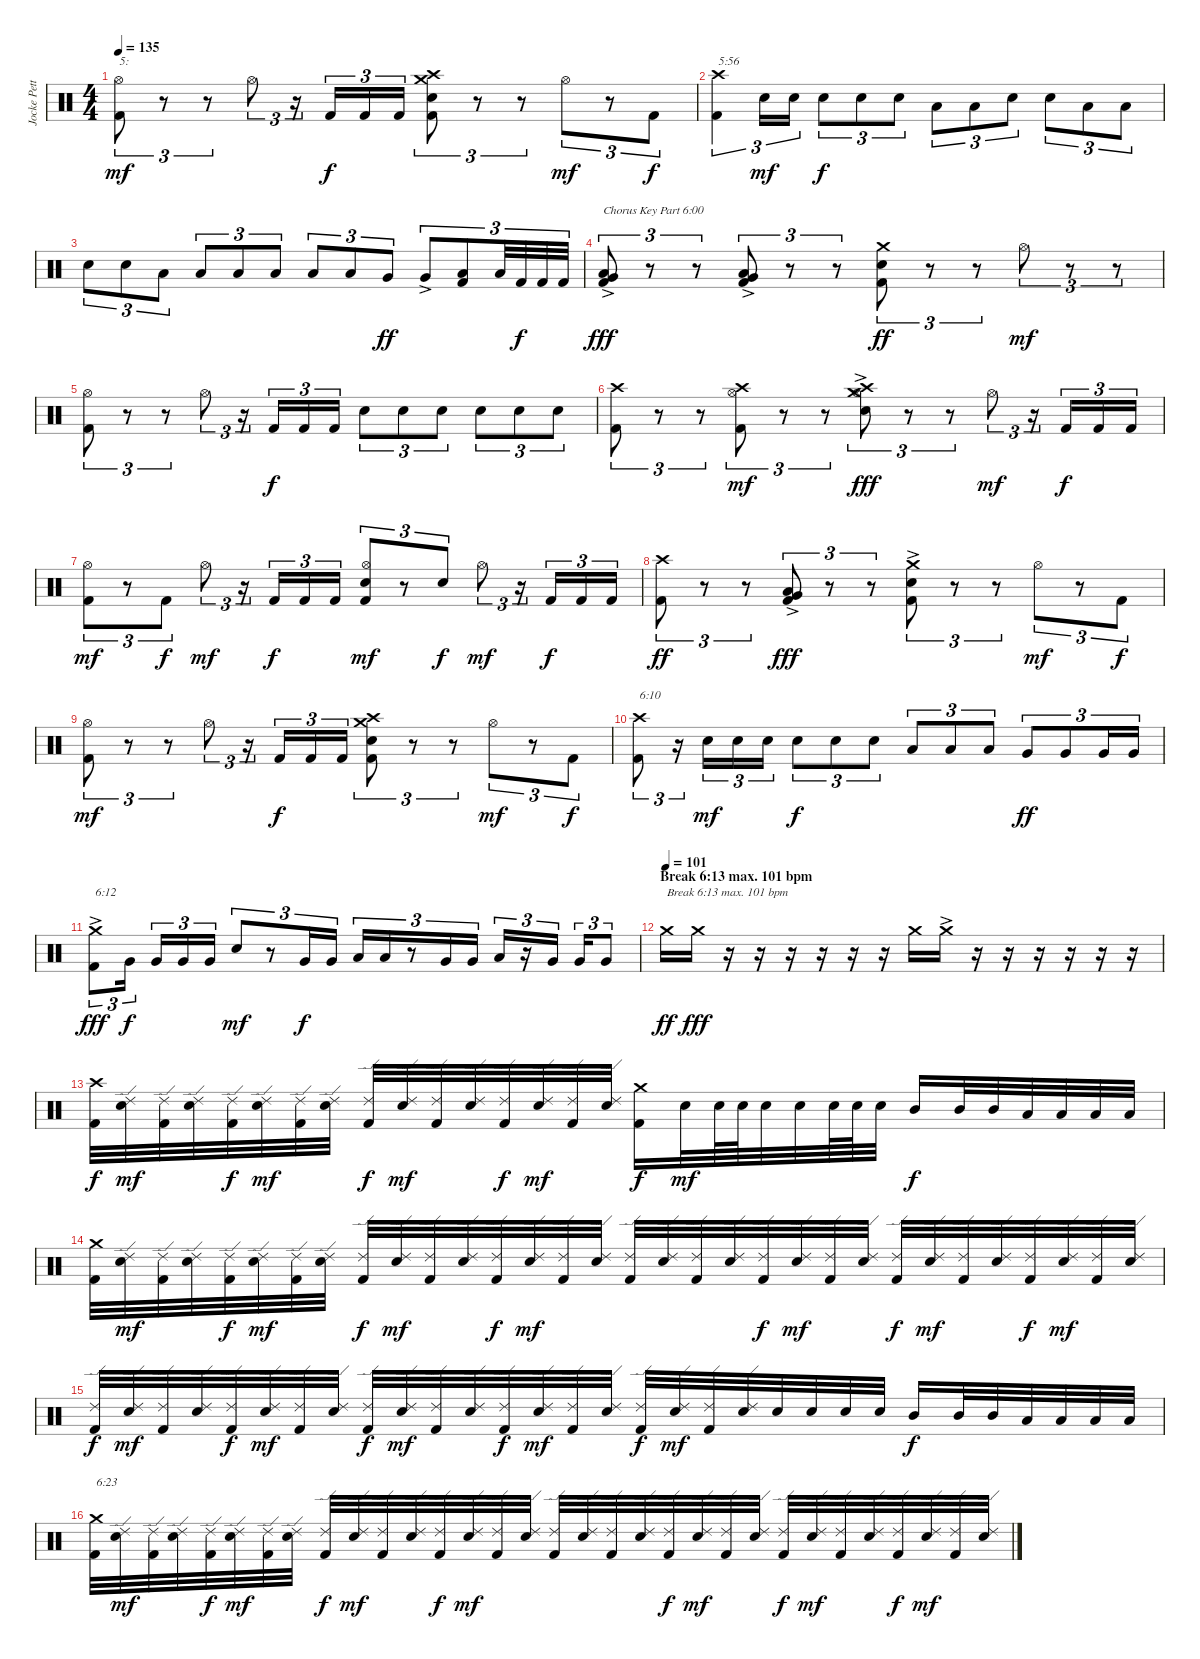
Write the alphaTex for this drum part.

\track ("Jocke Pettersson" "Jocke Pett") {instrument percussion}
\staff {score}
\articulation defaults
\ts (4 4)
\tempo 135
\clef neutral
\ks c
("Kick (hit) 2" "Hi-Hat (open)").8{tu (3 2) txt "5:" dy mf} r.8{tu (3 2)} r.8{tu (3 2)} "Hi-Hat (open)".8{tu (3 2)} r.16{tu (3 2)} "Kick (hit) 2".16{tu (3 2) dy f} "Kick (hit) 2".16{tu (3 2)} "Kick (hit) 2".16{tu (3 2)} ("Kick (hit) 2" "Electric Snare (hit)" "Crash medium (hit)" "Crash high (hit)").8{tu (3 2)} r.8{tu (3 2)} r.8{tu (3 2)} "Hi-Hat (open)".8{tu (3 2) dy mf} r.8{tu (3 2)} "Kick (hit) 2".8{tu (3 2) dy f} |
("Kick (hit) 2" "Crash high (hit)").4{tu (3 2) txt "5:56"} "Electric Snare (hit)".16{tu (3 2) dy mf} "Electric Snare (hit)".16{tu (3 2)} "Electric Snare (hit)".8{tu (3 2) dy f} "Electric Snare (hit)".8{tu (3 2)} "Electric Snare (hit)".8{tu (3 2)} "Low Tom (hit)".8{tu (3 2)} "Low Tom (hit)".8{tu (3 2)} "Electric Snare (hit)".8{tu (3 2)} "Electric Snare (hit)".8{tu (3 2)} "Low Tom (hit)".8{tu (3 2)} "Low Tom (hit)".8{tu (3 2)} |
"Electric Snare (hit)".8{tu (3 2)} "Electric Snare (hit)".8{tu (3 2)} "Low Tom (hit)".8{tu (3 2)} "Low Tom (hit)".8{tu (3 2)} "Low Tom (hit)".8{tu (3 2)} "Low Tom (hit)".8{tu (3 2)} "Low Tom (hit)".8{tu (3 2)} "Low Tom (hit)".8{tu (3 2)} "Very Low Tom (hit)".8{tu (3 2) dy ff} "Very Low Tom (hit)"{ac}.8{tu (3 2)} ("Kick (hit) 2" "Low Floor Tom (hit)").8{tu (3 2)} "Low Floor Tom (hit)".32{tu (3 2)} "Kick (hit) 2".32{tu (3 2) dy f} "Kick (hit) 2".32{tu (3 2)} "Kick (hit) 2".32{tu (3 2)} |
("Kick (hit) 2" "Very Low Tom (hit)"{ac} "Low Tom (hit)").8{tu (3 2) txt "Chorus Key Part 6:00" dy fff} r.8{tu (3 2)} r.8{tu (3 2)} ("Kick (hit) 2" "Very Low Tom (hit)"{ac} "Low Tom (hit)"{ac}).8{tu (3 2)} r.8{tu (3 2)} r.8{tu (3 2)} ("Kick (hit) 2" "Electric Snare (hit)" "Crash medium (hit)").8{tu (3 2) dy ff} r.8{tu (3 2)} r.8{tu (3 2)} "Hi-Hat (open)".8{tu (3 2) dy mf} r.8{tu (3 2)} r.8{tu (3 2)} |
("Kick (hit) 2" "Hi-Hat (open)").8{tu (3 2)} r.8{tu (3 2)} r.8{tu (3 2)} "Hi-Hat (open)".8{tu (3 2)} r.16{tu (3 2)} "Kick (hit) 2".16{tu (3 2) dy f} "Kick (hit) 2".16{tu (3 2)} "Kick (hit) 2".16{tu (3 2)} "Electric Snare (hit)".8{tu (3 2)} "Electric Snare (hit)".8{tu (3 2)} "Electric Snare (hit)".8{tu (3 2)} "Electric Snare (hit)".8{tu (3 2)} "Electric Snare (hit)".8{tu (3 2)} "Electric Snare (hit)".8{tu (3 2)} |
("Kick (hit) 2" "Crash high (hit)").8{tu (3 2)} r.8{tu (3 2)} r.8{tu (3 2)} ("Kick (hit) 2" "Hi-Hat (open)" "Crash high (hit)").8{tu (3 2) dy mf} r.8{tu (3 2)} r.8{tu (3 2)} ("Electric Snare (hit)" "Hi-Hat (open)" "Crash high (hit)" "Crash medium (hit)"{ac}).8{tu (3 2) dy fff} r.8{tu (3 2)} r.8{tu (3 2)} "Hi-Hat (open)".8{tu (3 2) dy mf} r.16{tu (3 2)} "Kick (hit) 2".16{tu (3 2) dy f} "Kick (hit) 2".16{tu (3 2)} "Kick (hit) 2".16{tu (3 2)} |
("Kick (hit) 2" "Hi-Hat (open)").8{tu (3 2) dy mf} r.8{tu (3 2)} "Kick (hit) 2".8{tu (3 2) dy f} "Hi-Hat (open)".8{tu (3 2) dy mf} r.16{tu (3 2)} "Kick (hit) 2".16{tu (3 2) dy f} "Kick (hit) 2".16{tu (3 2)} "Kick (hit) 2".16{tu (3 2)} ("Kick (hit) 2" "Electric Snare (hit)" "Hi-Hat (open)").8{tu (3 2) dy mf} r.8{tu (3 2)} "Electric Snare (hit)".8{tu (3 2) dy f} "Hi-Hat (open)".8{tu (3 2) dy mf} r.16{tu (3 2)} "Kick (hit) 2".16{tu (3 2) dy f} "Kick (hit) 2".16{tu (3 2)} "Kick (hit) 2".16{tu (3 2)} |
("Kick (hit) 2" "Crash high (hit)").8{tu (3 2) dy ff} r.8{tu (3 2)} r.8{tu (3 2)} ("Kick (hit) 2" "Very Low Tom (hit)"{ac} "Low Tom (hit)"{ac}).8{tu (3 2) dy fff} r.8{tu (3 2)} r.8{tu (3 2)} ("Kick (hit) 2" "Electric Snare (hit)" "Crash medium (hit)"{ac}).8{tu (3 2)} r.8{tu (3 2)} r.8{tu (3 2)} "Hi-Hat (open)".8{tu (3 2) dy mf} r.8{tu (3 2)} "Kick (hit) 2".8{tu (3 2) dy f} |
("Kick (hit) 2" "Hi-Hat (open)").8{tu (3 2) dy mf} r.8{tu (3 2)} r.8{tu (3 2)} "Hi-Hat (open)".8{tu (3 2)} r.16{tu (3 2)} "Kick (hit) 2".16{tu (3 2) dy f} "Kick (hit) 2".16{tu (3 2)} "Kick (hit) 2".16{tu (3 2)} ("Kick (hit) 2" "Electric Snare (hit)" "Crash medium (hit)" "Crash high (hit)").8{tu (3 2)} r.8{tu (3 2)} r.8{tu (3 2)} "Hi-Hat (open)".8{tu (3 2) dy mf} r.8{tu (3 2)} "Kick (hit) 2".8{tu (3 2) dy f} |
("Kick (hit) 2" "Crash high (hit)").8{tu (3 2) txt "6:10"} r.16{tu (3 2)} "Electric Snare (hit)".16{tu (3 2) dy mf} "Electric Snare (hit)".16{tu (3 2)} "Electric Snare (hit)".16{tu (3 2)} "Electric Snare (hit)".8{tu (3 2) dy f} "Electric Snare (hit)".8{tu (3 2)} "Electric Snare (hit)".8{tu (3 2)} "Low Tom (hit)".8{tu (3 2)} "Low Tom (hit)".8{tu (3 2)} "Low Tom (hit)".8{tu (3 2)} "Very Low Tom (hit)".8{tu (3 2) dy ff} "Very Low Tom (hit)".8{tu (3 2)} "Very Low Tom (hit)".16{tu (3 2)} "Very Low Tom (hit)".16{tu (3 2)} |
("Kick (hit) 2" "Crash medium (hit)"{ac}).8{tu (3 2) txt "6:12" dy fff} "Very Low Tom (hit)".16{tu (3 2) dy f} "Very Low Tom (hit)".16{tu (3 2)} "Very Low Tom (hit)".16{tu (3 2)} "Very Low Tom (hit)".16{tu (3 2)} "Electric Snare (hit)".8{tu (3 2) dy mf} r.8{tu (3 2)} "Very Low Tom (hit)".16{tu (3 2) dy f} "Very Low Tom (hit)".16{tu (3 2)} "Low Tom (hit)".16{tu (3 2)} "Low Tom (hit)".16{tu (3 2)} r.8{tu (3 2)} "Very Low Tom (hit)".16{tu (3 2)} "Very Low Tom (hit)".16{tu (3 2)} "Low Tom (hit)".16{tu (3 2)} r.16{tu (3 2)} "Very Low Tom (hit)".16{tu (3 2)} "Very Low Tom (hit)".16{tu (3 2)} "Very Low Tom (hit)".8{tu (3 2)} |
\section ("" "Break 6:13 max. 101 bpm")
\tempo (101)
"Crash medium (hit)".16{txt "Break 6:13 max. 101 bpm" dy ff} "Crash medium (hit)".16{dy fff} r.16{volume 0} r.16 r.16 r.16 r.16 r.16 "Crash medium (hit)".16{volume 14} "Crash medium (hit)"{ac}.16 r.16{volume 0} r.16 r.16 r.16 r.16 r.16{volume 14} |
("Kick (hit) 2" "Crash high (hit)").32{dy f} ("Electric Snare (hit)" "Ride (edge) 2").32{dy mf} ("Kick (hit) 2" "Ride (edge) 2").32 ("Electric Snare (hit)" "Ride (edge) 2").32 ("Kick (hit) 2" "Ride (edge) 2").32{dy f} ("Electric Snare (hit)" "Ride (edge) 2").32{dy mf} ("Kick (hit) 2" "Ride (edge) 2").32 ("Electric Snare (hit)" "Ride (edge) 2").32 ("Kick (hit) 2" "Ride (edge) 2").32{dy f} ("Electric Snare (hit)" "Ride (edge) 2").32{dy mf} ("Kick (hit) 2" "Ride (edge) 2").32 ("Electric Snare (hit)" "Ride (edge) 2").32 ("Kick (hit) 2" "Ride (edge) 2").32{dy f} ("Electric Snare (hit)" "Ride (edge) 2").32{dy mf} ("Kick (hit) 2" "Ride (edge) 2").32 ("Electric Snare (hit)" "Ride (edge) 2").32 ("Kick (hit) 2" "Crash medium (hit)").16{dy f} "Electric Snare (hit)".32{dy mf} "Electric Snare (hit)".64 "Electric Snare (hit)".64 "Electric Snare (hit)".32 "Electric Snare (hit)".32 "Electric Snare (hit)".64 "Electric Snare (hit)".64 "Electric Snare (hit)".32 "Mid Tom (hit)".16{dy f} "Mid Tom (hit)".32 "Mid Tom (hit)".32 "Low Tom (hit)".32 "Low Tom (hit)".32 "Low Tom (hit)".32 "Low Tom (hit)".32 |
("Kick (hit) 2" "Crash medium (hit)").32 ("Electric Snare (hit)" "Ride (edge) 2").32{dy mf} ("Kick (hit) 2" "Ride (edge) 2").32 ("Electric Snare (hit)" "Ride (edge) 2").32 ("Kick (hit) 2" "Ride (edge) 2").32{dy f} ("Electric Snare (hit)" "Ride (edge) 2").32{dy mf} ("Kick (hit) 2" "Ride (edge) 2").32 ("Electric Snare (hit)" "Ride (edge) 2").32 ("Kick (hit) 2" "Ride (edge) 2").32{dy f} ("Electric Snare (hit)" "Ride (edge) 2").32{dy mf} ("Kick (hit) 2" "Ride (edge) 2").32 ("Electric Snare (hit)" "Ride (edge) 2").32 ("Kick (hit) 2" "Ride (edge) 2").32{dy f} ("Electric Snare (hit)" "Ride (edge) 2").32{dy mf} ("Kick (hit) 2" "Ride (edge) 2").32 ("Electric Snare (hit)" "Ride (edge) 2").32 ("Kick (hit) 2" "Ride (edge) 2").32 ("Electric Snare (hit)" "Ride (edge) 2").32 ("Kick (hit) 2" "Ride (edge) 2").32 ("Electric Snare (hit)" "Ride (edge) 2").32 ("Kick (hit) 2" "Ride (edge) 2").32{dy f} ("Electric Snare (hit)" "Ride (edge) 2").32{dy mf} ("Kick (hit) 2" "Ride (edge) 2").32 ("Electric Snare (hit)" "Ride (edge) 2").32 ("Kick (hit) 2" "Ride (edge) 2").32{dy f} ("Electric Snare (hit)" "Ride (edge) 2").32{dy mf} ("Kick (hit) 2" "Ride (edge) 2").32 ("Electric Snare (hit)" "Ride (edge) 2").32 ("Kick (hit) 2" "Ride (edge) 2").32{dy f} ("Electric Snare (hit)" "Ride (edge) 2").32{dy mf} ("Kick (hit) 2" "Ride (edge) 2").32 ("Electric Snare (hit)" "Ride (edge) 2").32 |
("Kick (hit) 2" "Ride (edge) 2").32{dy f} ("Electric Snare (hit)" "Ride (edge) 2").32{dy mf} ("Kick (hit) 2" "Ride (edge) 2").32 ("Electric Snare (hit)" "Ride (edge) 2").32 ("Kick (hit) 2" "Ride (edge) 2").32{dy f} ("Electric Snare (hit)" "Ride (edge) 2").32{dy mf} ("Kick (hit) 2" "Ride (edge) 2").32 ("Electric Snare (hit)" "Ride (edge) 2").32 ("Kick (hit) 2" "Ride (edge) 2").32{dy f} ("Electric Snare (hit)" "Ride (edge) 2").32{dy mf} ("Kick (hit) 2" "Ride (edge) 2").32 ("Electric Snare (hit)" "Ride (edge) 2").32 ("Kick (hit) 2" "Ride (edge) 2").32{dy f} ("Electric Snare (hit)" "Ride (edge) 2").32{dy mf} ("Kick (hit) 2" "Ride (edge) 2").32 ("Electric Snare (hit)" "Ride (edge) 2").32 ("Kick (hit) 2" "Ride (edge) 2").32{dy f} ("Electric Snare (hit)" "Ride (edge) 2").32{dy mf} ("Kick (hit) 2" "Ride (edge) 2").32 ("Electric Snare (hit)" "Ride (edge) 2").32 "Electric Snare (hit)".32 "Electric Snare (hit)".32 "Electric Snare (hit)".32 "Electric Snare (hit)".32 "Mid Tom (hit)".16{dy f} "Mid Tom (hit)".32 "Mid Tom (hit)".32 "Low Tom (hit)".32 "Low Tom (hit)".32 "Low Tom (hit)".32 "Low Tom (hit)".32 |
("Kick (hit) 2" "Crash medium (hit)").32{txt "6:23"} ("Electric Snare (hit)" "Ride (edge) 2").32{dy mf} ("Kick (hit) 2" "Ride (edge) 2").32 ("Electric Snare (hit)" "Ride (edge) 2").32 ("Kick (hit) 2" "Ride (edge) 2").32{dy f} ("Electric Snare (hit)" "Ride (edge) 2").32{dy mf} ("Kick (hit) 2" "Ride (edge) 2").32 ("Electric Snare (hit)" "Ride (edge) 2").32 ("Kick (hit) 2" "Ride (edge) 2").32{dy f} ("Electric Snare (hit)" "Ride (edge) 2").32{dy mf} ("Kick (hit) 2" "Ride (edge) 2").32 ("Electric Snare (hit)" "Ride (edge) 2").32 ("Kick (hit) 2" "Ride (edge) 2").32{dy f} ("Electric Snare (hit)" "Ride (edge) 2").32{dy mf} ("Kick (hit) 2" "Ride (edge) 2").32 ("Electric Snare (hit)" "Ride (edge) 2").32 ("Kick (hit) 2" "Ride (edge) 2").32 ("Electric Snare (hit)" "Ride (edge) 2").32 ("Kick (hit) 2" "Ride (edge) 2").32 ("Electric Snare (hit)" "Ride (edge) 2").32 ("Kick (hit) 2" "Ride (edge) 2").32{dy f} ("Electric Snare (hit)" "Ride (edge) 2").32{dy mf} ("Kick (hit) 2" "Ride (edge) 2").32 ("Electric Snare (hit)" "Ride (edge) 2").32 ("Kick (hit) 2" "Ride (edge) 2").32{dy f} ("Electric Snare (hit)" "Ride (edge) 2").32{dy mf} ("Kick (hit) 2" "Ride (edge) 2").32 ("Electric Snare (hit)" "Ride (edge) 2").32 ("Kick (hit) 2" "Ride (edge) 2").32{dy f} ("Electric Snare (hit)" "Ride (edge) 2").32{dy mf} ("Kick (hit) 2" "Ride (edge) 2").32 ("Electric Snare (hit)" "Ride (edge) 2").32
